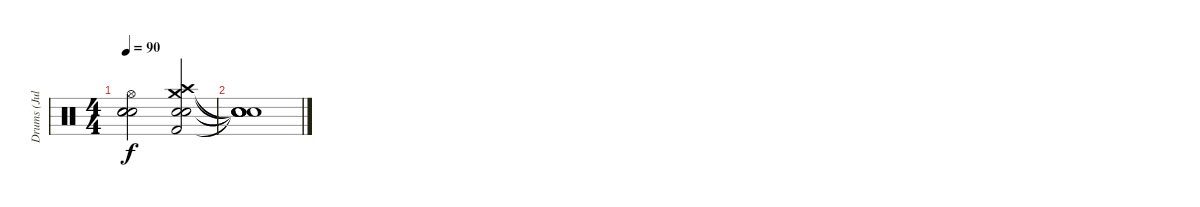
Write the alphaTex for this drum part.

\track ("Drums (Julian Del Rosario)" "Drums (Jul") {instrument percussion}
\staff {score}
\articulation defaults
\ts (4 4)
\tempo 90
\clef neutral
\ks c
("Snare (hit)"{t} "Hi-Hat (open)" "Snare (hit)"{t} "Snare (hit) 2").2{dy f} ("Crash high (hit)" "Crash medium (hit)" "Snare (hit) 2" "Electric Snare (hit)" "Kick (hit) 2").2 |
("Snare (hit)"{t} "Snare (hit)"{t} "Snare (hit)"{t} "Snare (hit)"{t} "Snare (hit)"{t}).1
